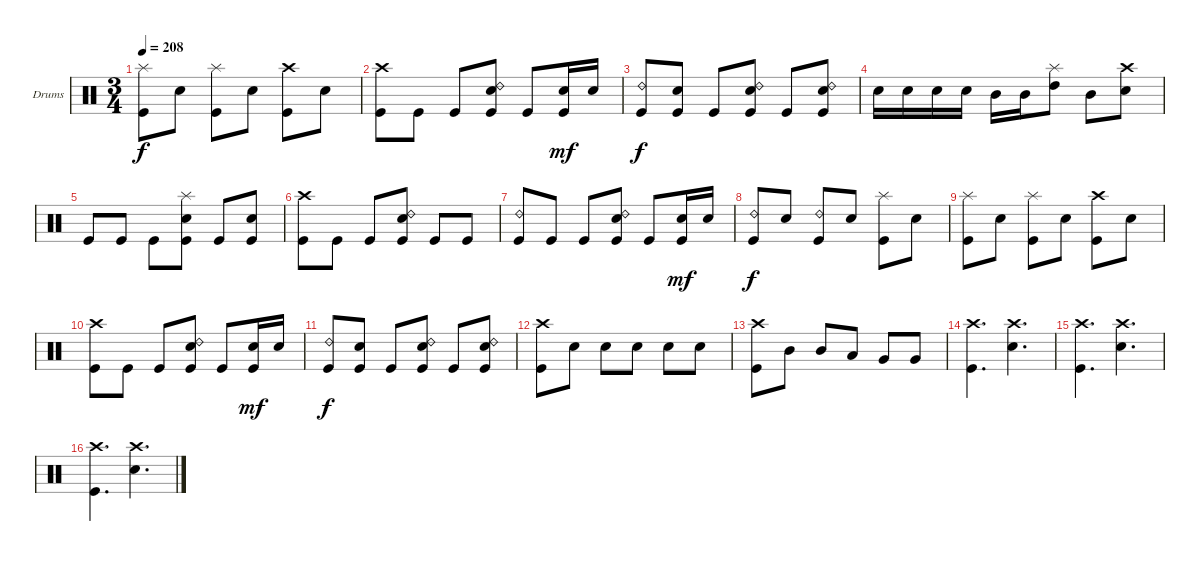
\bracketExtendMode groupsimilarinstruments
\firstSystemTrackNameOrientation horizontal
\otherSystemsTrackNameOrientation horizontal
\track ("Drumkit" "Drums") {instrument percussion}
\staff {score}
\articulation defaults
\ts (3 4)
\tempo 208
\clef neutral
\ks c
("Splash (hit)" "Kick (hit)").8{dy f} "Snare (hit) 2".8 ("Splash (hit)" "Kick (hit)").8 "Snare (hit) 2".8 ("Crash high (hit)" "Kick (hit)").8 "Snare (hit) 2".8 |
("Crash high (hit)" "Kick (hit)").8 "Kick (hit)".8 "Kick (hit)".8 ("Ride (bell) 2" "Snare (hit) 2" "Kick (hit)").8 "Kick (hit)".8 ("Snare (hit) 2" "Kick (hit)").16{dy mf} "Snare (hit) 2".16 |
("Ride (bell) 2" "Kick (hit)").8{dy f} ("Snare (hit) 2" "Kick (hit)").8 "Kick (hit)".8 ("Ride (bell) 2" "Snare (hit) 2" "Kick (hit)").8 "Kick (hit)".8 ("Ride (bell) 2" "Snare (hit) 2" "Kick (hit)").8 |
"Snare (hit) 2".16 "Snare (hit) 2".16 "Snare (hit) 2".16 "Snare (hit) 2".16 "Mid Tom (hit)".16 "Mid Tom (hit)".16 ("Splash (hit)" "High Tom (hit)").8 "Mid Tom (hit)".8 ("Crash high (hit)" "Snare (hit) 2").8 |
"Kick (hit)".8 "Kick (hit)".8 "Kick (hit)".8 ("Splash (hit)" "Snare (hit) 2" "Kick (hit)").8 "Kick (hit)".8 ("Snare (hit) 2" "Kick (hit)").8 |
("Crash high (hit)" "Kick (hit)").8 "Kick (hit)".8 "Kick (hit)".8 ("Ride (bell) 2" "Snare (hit) 2" "Kick (hit)").8 "Kick (hit)".8 "Kick (hit)".8 |
("Ride (bell) 2" "Kick (hit)").8 "Kick (hit)".8 "Kick (hit)".8 ("Ride (bell) 2" "Snare (hit) 2" "Kick (hit)").8 "Kick (hit)".8 ("Snare (hit) 2" "Kick (hit)").16{dy mf} "Snare (hit) 2".16 |
("Ride (bell) 2" "Kick (hit)").8{dy f} "Snare (hit) 2".8 ("Ride (bell) 2" "Kick (hit)").8 "Snare (hit) 2".8 ("Splash (hit)" "Kick (hit)").8 "Snare (hit) 2".8 |
("Splash (hit)" "Kick (hit)").8 "Snare (hit) 2".8 ("Splash (hit)" "Kick (hit)").8 "Snare (hit) 2".8 ("Crash high (hit)" "Kick (hit)").8 "Snare (hit) 2".8 |
("Crash high (hit)" "Kick (hit)").8 "Kick (hit)".8 "Kick (hit)".8 ("Ride (bell) 2" "Snare (hit) 2" "Kick (hit)").8 "Kick (hit)".8 ("Snare (hit) 2" "Kick (hit)").16{dy mf} "Snare (hit) 2".16 |
("Ride (bell) 2" "Kick (hit)").8{dy f} ("Snare (hit) 2" "Kick (hit)").8 "Kick (hit)".8 ("Ride (bell) 2" "Snare (hit) 2" "Kick (hit)").8 "Kick (hit)".8 ("Ride (bell) 2" "Snare (hit) 2" "Kick (hit)").8 |
("Crash high (hit)" "Kick (hit)").8 "Snare (hit) 2".8 "Snare (hit) 2".8 "Snare (hit) 2".8 "Snare (hit) 2".8 "Snare (hit) 2".8 |
("Crash high (hit)" "Kick (hit)").8 "Mid Tom (hit)".8 "Mid Tom (hit)".8 "Low Tom (hit)".8 "Very Low Tom (hit)".8 "Very Low Tom (hit)".8 |
("Crash high (hit)" "Kick (hit)").4{d} ("Crash high (hit)" "Snare (hit) 2").4{d} |
("Crash high (hit)" "Kick (hit)").4{d} ("Crash high (hit)" "Snare (hit) 2").4{d} |
("Crash high (hit)" "Kick (hit)").4{d} ("Crash high (hit)" "Snare (hit) 2").4{d}
